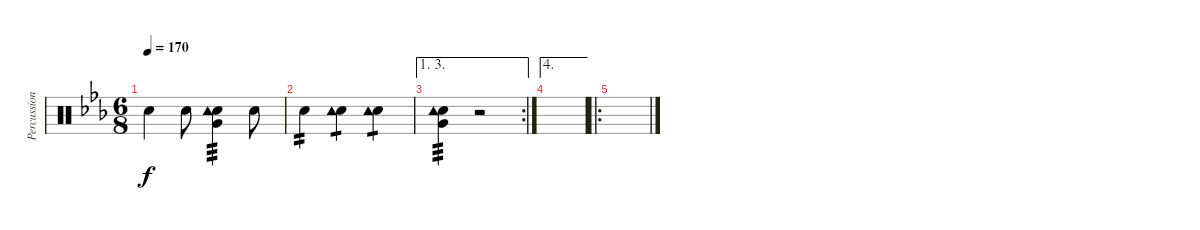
\track ("Percussioni" "Percussion") {instrument percussion}
\staff {score}
\articulation defaults
\ts (6 8)
\tempo 170
\clef neutral
\ks eb "Electric Snare (hit)".4{dy f} "Electric Snare (hit)".8
("Very Low Tom (hit)" "Electric Snare (hit)" "Tambourine (hit)").4{tp 3} "Electric Snare (hit)".8 |
"Electric Snare (hit)".4{tp 2} ("Electric Snare (hit)" "Tambourine (hit)").4{tp 1} ("Electric Snare (hit)" "Tambourine (hit)").4{tp 1} |
\ae (1 3)
\rc 2
("Very Low Tom (hit)" "Electric Snare (hit)" "Tambourine (hit)").4{tp 3} r.2 |
\ae 4
|
\ro
